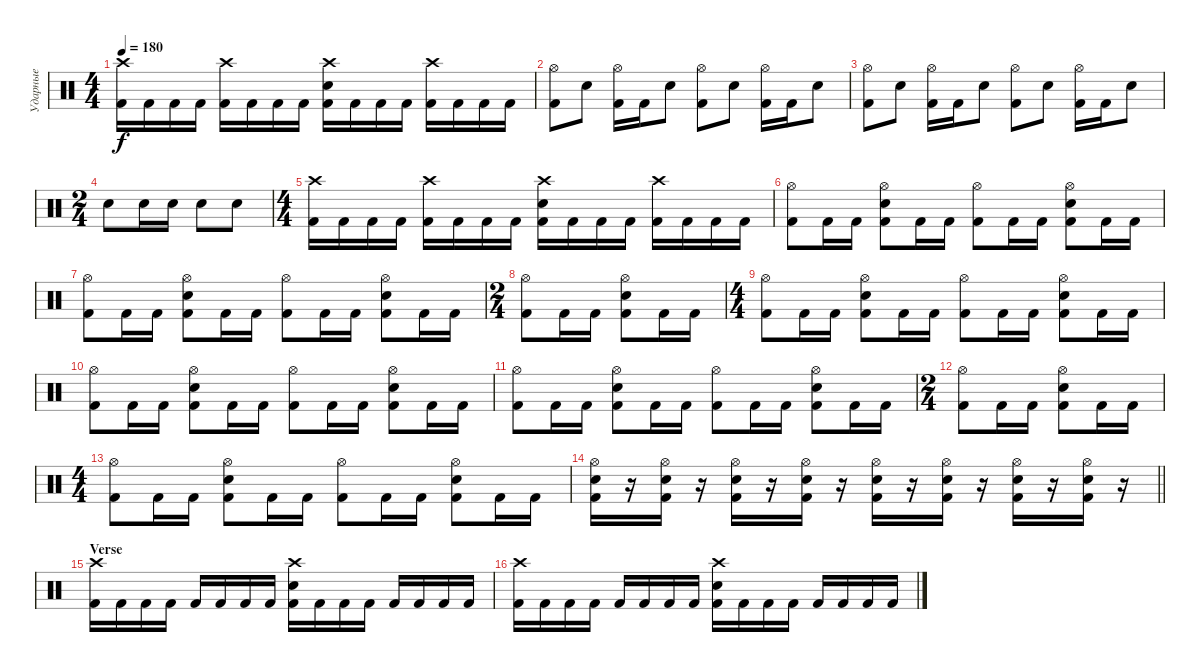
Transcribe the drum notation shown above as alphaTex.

\track ("Ударные" "Ударные") {instrument percussion}
\staff {score}
\articulation defaults
\ts (4 4)
\tempo 180
\clef neutral
\ks c
("Crash high (hit)" "Kick (hit) 2").16{dy f} "Kick (hit) 2".16 "Kick (hit) 2".16 "Kick (hit) 2".16 ("Crash high (hit)" "Kick (hit) 2").16 "Kick (hit) 2".16 "Kick (hit) 2".16 "Kick (hit) 2".16 ("Crash high (hit)" "Electric Snare (hit)" "Kick (hit) 2").16 "Kick (hit) 2".16 "Kick (hit) 2".16 "Kick (hit) 2".16 ("Crash high (hit)" "Kick (hit) 2").16 "Kick (hit) 2".16 "Kick (hit) 2".16 "Kick (hit) 2".16 |
("Hi-Hat (open)" "Kick (hit) 2").8 "Electric Snare (hit)".8 ("Hi-Hat (open)" "Kick (hit) 2").16 "Kick (hit) 2".16 "Electric Snare (hit)".8 ("Hi-Hat (open)" "Kick (hit) 2").8 "Electric Snare (hit)".8 ("Hi-Hat (open)" "Kick (hit) 2").16 "Kick (hit) 2".16 "Electric Snare (hit)".8 |
("Hi-Hat (open)" "Kick (hit) 2").8 "Electric Snare (hit)".8 ("Hi-Hat (open)" "Kick (hit) 2").16 "Kick (hit) 2".16 "Electric Snare (hit)".8 ("Hi-Hat (open)" "Kick (hit) 2").8 "Electric Snare (hit)".8 ("Hi-Hat (open)" "Kick (hit) 2").16 "Kick (hit) 2".16 "Electric Snare (hit)".8 |
\ts (2 4)
"Electric Snare (hit)".8 "Electric Snare (hit)".16 "Electric Snare (hit)".16 "Electric Snare (hit)".8 "Electric Snare (hit)".8 |
\ts (4 4)
("Crash high (hit)" "Kick (hit) 2").16 "Kick (hit) 2".16 "Kick (hit) 2".16 "Kick (hit) 2".16 ("Crash high (hit)" "Kick (hit) 2").16 "Kick (hit) 2".16 "Kick (hit) 2".16 "Kick (hit) 2".16 ("Crash high (hit)" "Electric Snare (hit)" "Kick (hit) 2").16 "Kick (hit) 2".16 "Kick (hit) 2".16 "Kick (hit) 2".16 ("Crash high (hit)" "Kick (hit) 2").16 "Kick (hit) 2".16 "Kick (hit) 2".16 "Kick (hit) 2".16 |
("Hi-Hat (open)" "Kick (hit) 2").8 "Kick (hit) 2".16 "Kick (hit) 2".16 ("Hi-Hat (open)" "Electric Snare (hit)" "Kick (hit) 2").8 "Kick (hit) 2".16 "Kick (hit) 2".16 ("Hi-Hat (open)" "Kick (hit) 2").8 "Kick (hit) 2".16 "Kick (hit) 2".16 ("Hi-Hat (open)" "Electric Snare (hit)" "Kick (hit) 2").8 "Kick (hit) 2".16 "Kick (hit) 2".16 |
("Hi-Hat (open)" "Kick (hit) 2").8 "Kick (hit) 2".16 "Kick (hit) 2".16 ("Hi-Hat (open)" "Electric Snare (hit)" "Kick (hit) 2").8 "Kick (hit) 2".16 "Kick (hit) 2".16 ("Hi-Hat (open)" "Kick (hit) 2").8 "Kick (hit) 2".16 "Kick (hit) 2".16 ("Hi-Hat (open)" "Electric Snare (hit)" "Kick (hit) 2").8 "Kick (hit) 2".16 "Kick (hit) 2".16 |
\ts (2 4)
("Hi-Hat (open)" "Kick (hit) 2").8 "Kick (hit) 2".16 "Kick (hit) 2".16 ("Hi-Hat (open)" "Electric Snare (hit)" "Kick (hit) 2").8 "Kick (hit) 2".16 "Kick (hit) 2".16 |
\ts (4 4)
("Hi-Hat (open)" "Kick (hit) 2").8 "Kick (hit) 2".16 "Kick (hit) 2".16 ("Hi-Hat (open)" "Electric Snare (hit)" "Kick (hit) 2").8 "Kick (hit) 2".16 "Kick (hit) 2".16 ("Hi-Hat (open)" "Kick (hit) 2").8 "Kick (hit) 2".16 "Kick (hit) 2".16 ("Hi-Hat (open)" "Electric Snare (hit)" "Kick (hit) 2").8 "Kick (hit) 2".16 "Kick (hit) 2".16 |
("Hi-Hat (open)" "Kick (hit) 2").8 "Kick (hit) 2".16 "Kick (hit) 2".16 ("Hi-Hat (open)" "Electric Snare (hit)" "Kick (hit) 2").8 "Kick (hit) 2".16 "Kick (hit) 2".16 ("Hi-Hat (open)" "Kick (hit) 2").8 "Kick (hit) 2".16 "Kick (hit) 2".16 ("Hi-Hat (open)" "Electric Snare (hit)" "Kick (hit) 2").8 "Kick (hit) 2".16 "Kick (hit) 2".16 |
("Hi-Hat (open)" "Kick (hit) 2").8 "Kick (hit) 2".16 "Kick (hit) 2".16 ("Hi-Hat (open)" "Electric Snare (hit)" "Kick (hit) 2").8 "Kick (hit) 2".16 "Kick (hit) 2".16 ("Hi-Hat (open)" "Kick (hit) 2").8 "Kick (hit) 2".16 "Kick (hit) 2".16 ("Hi-Hat (open)" "Electric Snare (hit)" "Kick (hit) 2").8 "Kick (hit) 2".16 "Kick (hit) 2".16 |
\ts (2 4)
("Hi-Hat (open)" "Kick (hit) 2").8 "Kick (hit) 2".16 "Kick (hit) 2".16 ("Hi-Hat (open)" "Electric Snare (hit)" "Kick (hit) 2").8 "Kick (hit) 2".16 "Kick (hit) 2".16 |
\ts (4 4)
("Hi-Hat (open)" "Kick (hit) 2").8 "Kick (hit) 2".16 "Kick (hit) 2".16 ("Hi-Hat (open)" "Electric Snare (hit)" "Kick (hit) 2").8 "Kick (hit) 2".16 "Kick (hit) 2".16 ("Hi-Hat (open)" "Kick (hit) 2").8 "Kick (hit) 2".16 "Kick (hit) 2".16 ("Hi-Hat (open)" "Electric Snare (hit)" "Kick (hit) 2").8 "Kick (hit) 2".16 "Kick (hit) 2".16 |
\barLineRight lightlight
("Hi-Hat (open)" "Electric Snare (hit)" "Kick (hit) 2").16 r.16 ("Hi-Hat (open)" "Electric Snare (hit)" "Kick (hit) 2").16 r.16 ("Hi-Hat (open)" "Electric Snare (hit)" "Kick (hit) 2").16 r.16 ("Hi-Hat (open)" "Electric Snare (hit)" "Kick (hit) 2").16 r.16 ("Hi-Hat (open)" "Electric Snare (hit)" "Kick (hit) 2").16 r.16 ("Hi-Hat (open)" "Electric Snare (hit)" "Kick (hit) 2").16 r.16 ("Hi-Hat (open)" "Electric Snare (hit)" "Kick (hit) 2").16 r.16 ("Hi-Hat (open)" "Electric Snare (hit)" "Kick (hit) 2").16 r.16 |
\section ("" "Verse")
("Crash high (hit)" "Kick (hit) 2").16 "Kick (hit) 2".16 "Kick (hit) 2".16 "Kick (hit) 2".16 "Kick (hit) 2".16 "Kick (hit) 2".16 "Kick (hit) 2".16 "Kick (hit) 2".16 ("Crash high (hit)" "Electric Snare (hit)" "Kick (hit) 2").16 "Kick (hit) 2".16 "Kick (hit) 2".16 "Kick (hit) 2".16 "Kick (hit) 2".16 "Kick (hit) 2".16 "Kick (hit) 2".16 "Kick (hit) 2".16 |
("Crash high (hit)" "Kick (hit) 2").16 "Kick (hit) 2".16 "Kick (hit) 2".16 "Kick (hit) 2".16 "Kick (hit) 2".16 "Kick (hit) 2".16 "Kick (hit) 2".16 "Kick (hit) 2".16 ("Crash high (hit)" "Electric Snare (hit)" "Kick (hit) 2").16 "Kick (hit) 2".16 "Kick (hit) 2".16 "Kick (hit) 2".16 "Kick (hit) 2".16 "Kick (hit) 2".16 "Kick (hit) 2".16 "Kick (hit) 2".16
